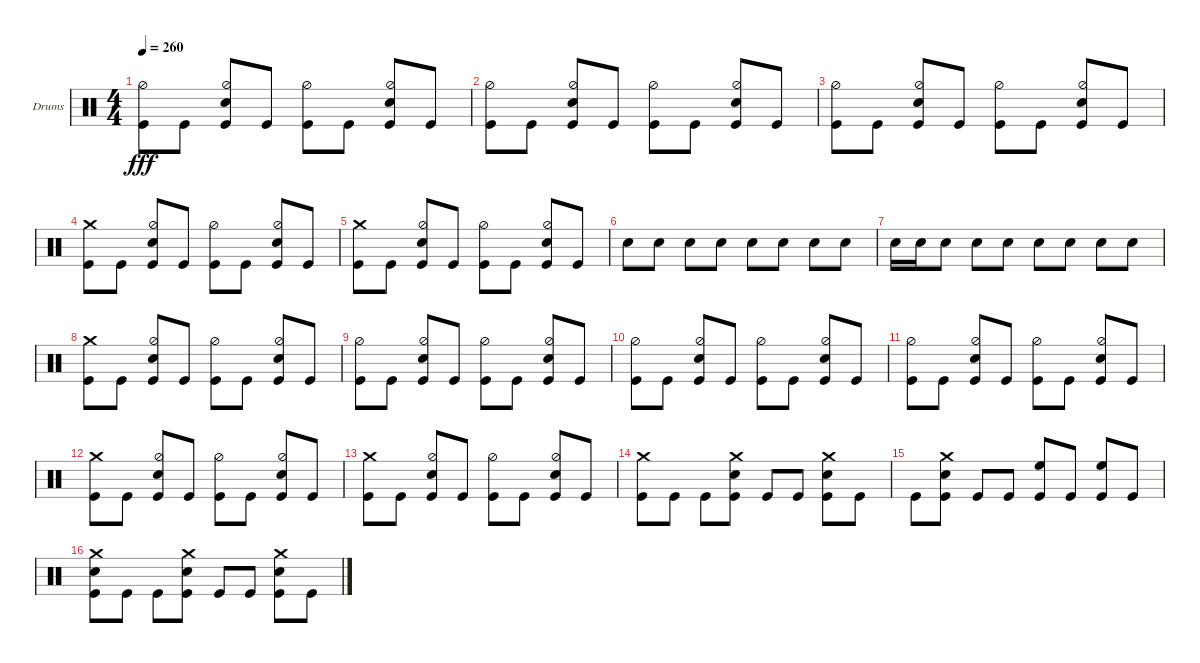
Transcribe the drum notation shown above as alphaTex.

\defaultSystemsLayout 4
\bracketExtendMode groupsimilarinstruments
\firstSystemTrackNameOrientation horizontal
\otherSystemsTrackNameOrientation horizontal
\track ("Stefan Schwarzmann" "Drums") {instrument percussion}
\staff {score}
\articulation defaults
\ts (4 4)
\tempo 260
\clef neutral
\ks c
("Kick (hit)" "Hi-Hat (half)").8{dy fff} "Kick (hit)".8 ("Kick (hit)" "Snare (hit) 2" "Hi-Hat (half)").8 "Kick (hit)".8 ("Kick (hit)" "Hi-Hat (half)").8 "Kick (hit)".8 ("Kick (hit)" "Snare (hit) 2" "Hi-Hat (half)").8 "Kick (hit)".8 |
("Kick (hit)" "Hi-Hat (half)").8 "Kick (hit)".8 ("Kick (hit)" "Snare (hit) 2" "Hi-Hat (half)").8 "Kick (hit)".8 ("Kick (hit)" "Hi-Hat (half)").8 "Kick (hit)".8 ("Kick (hit)" "Snare (hit) 2" "Hi-Hat (half)").8 "Kick (hit)".8 |
("Kick (hit)" "Hi-Hat (half)").8 "Kick (hit)".8 ("Kick (hit)" "Snare (hit) 2" "Hi-Hat (half)").8 "Kick (hit)".8 ("Kick (hit)" "Hi-Hat (half)").8 "Kick (hit)".8 ("Kick (hit)" "Snare (hit) 2" "Hi-Hat (half)").8 "Kick (hit)".8 |
("Kick (hit)" "Crash medium (hit)").8 "Kick (hit)".8 ("Kick (hit)" "Snare (hit) 2" "Hi-Hat (half)").8 "Kick (hit)".8 ("Kick (hit)" "Hi-Hat (half)").8 "Kick (hit)".8 ("Kick (hit)" "Snare (hit) 2" "Hi-Hat (half)").8 "Kick (hit)".8 |
("Kick (hit)" "Crash medium (hit)").8 "Kick (hit)".8 ("Kick (hit)" "Snare (hit) 2" "Hi-Hat (half)").8 "Kick (hit)".8 ("Kick (hit)" "Hi-Hat (half)").8 "Kick (hit)".8 ("Kick (hit)" "Snare (hit) 2" "Hi-Hat (half)").8 "Kick (hit)".8 |
"Snare (hit) 2".8 "Snare (hit) 2".8 "Snare (hit) 2".8 "Snare (hit) 2".8 "Snare (hit) 2".8 "Snare (hit) 2".8 "Snare (hit) 2".8 "Snare (hit) 2".8 |
"Snare (hit) 2".16 "Snare (hit) 2".16 "Snare (hit) 2".8 "Snare (hit) 2".8 "Snare (hit) 2".8 "Snare (hit) 2".8 "Snare (hit) 2".8 "Snare (hit) 2".8 "Snare (hit) 2".8 |
("Kick (hit)" "Crash medium (hit)").8 "Kick (hit)".8 ("Kick (hit)" "Snare (hit) 2" "Hi-Hat (half)").8 "Kick (hit)".8 ("Kick (hit)" "Hi-Hat (half)").8 "Kick (hit)".8 ("Kick (hit)" "Snare (hit) 2" "Hi-Hat (half)").8 "Kick (hit)".8 |
("Kick (hit)" "Hi-Hat (half)").8 "Kick (hit)".8 ("Kick (hit)" "Snare (hit) 2" "Hi-Hat (half)").8 "Kick (hit)".8 ("Kick (hit)" "Hi-Hat (half)").8 "Kick (hit)".8 ("Kick (hit)" "Snare (hit) 2" "Hi-Hat (half)").8 "Kick (hit)".8 |
("Kick (hit)" "Hi-Hat (half)").8 "Kick (hit)".8 ("Kick (hit)" "Snare (hit) 2" "Hi-Hat (half)").8 "Kick (hit)".8 ("Kick (hit)" "Hi-Hat (half)").8 "Kick (hit)".8 ("Kick (hit)" "Snare (hit) 2" "Hi-Hat (half)").8 "Kick (hit)".8 |
("Kick (hit)" "Hi-Hat (half)").8 "Kick (hit)".8 ("Kick (hit)" "Snare (hit) 2" "Hi-Hat (half)").8 "Kick (hit)".8 ("Kick (hit)" "Hi-Hat (half)").8 "Kick (hit)".8 ("Kick (hit)" "Snare (hit) 2" "Hi-Hat (half)").8 "Kick (hit)".8 |
("Kick (hit)" "Crash medium (hit)").8 "Kick (hit)".8 ("Kick (hit)" "Snare (hit) 2" "Hi-Hat (half)").8 "Kick (hit)".8 ("Kick (hit)" "Hi-Hat (half)").8 "Kick (hit)".8 ("Kick (hit)" "Snare (hit) 2" "Hi-Hat (half)").8 "Kick (hit)".8 |
("Kick (hit)" "Crash medium (hit)").8 "Kick (hit)".8 ("Kick (hit)" "Snare (hit) 2" "Hi-Hat (half)").8 "Kick (hit)".8 ("Kick (hit)" "Hi-Hat (half)").8 "Kick (hit)".8 ("Kick (hit)" "Snare (hit) 2" "Hi-Hat (half)").8 "Kick (hit)".8 |
("Kick (hit)" "Crash medium (hit)").8 "Kick (hit)".8 "Kick (hit)".8 ("Kick (hit)" "Snare (hit) 2" "Crash medium (hit)").8 "Kick (hit)".8 "Kick (hit)".8 ("Kick (hit)" "Snare (hit) 2" "Crash medium (hit)").8 "Kick (hit)".8 |
"Kick (hit)".8 ("Kick (hit)" "Snare (hit) 2" "Crash medium (hit)").8 "Kick (hit)".8 "Kick (hit)".8 ("Kick (hit)" "High Floor Tom (hit)").8 "Kick (hit)".8 ("Kick (hit)" "High Floor Tom (hit)").8 "Kick (hit)".8 |
("Kick (hit)" "Snare (hit) 2" "Crash medium (hit)").8 "Kick (hit)".8 "Kick (hit)".8 ("Kick (hit)" "Snare (hit) 2" "Crash medium (hit)").8 "Kick (hit)".8 "Kick (hit)".8 ("Kick (hit)" "Snare (hit) 2" "Crash medium (hit)").8 "Kick (hit)".8
